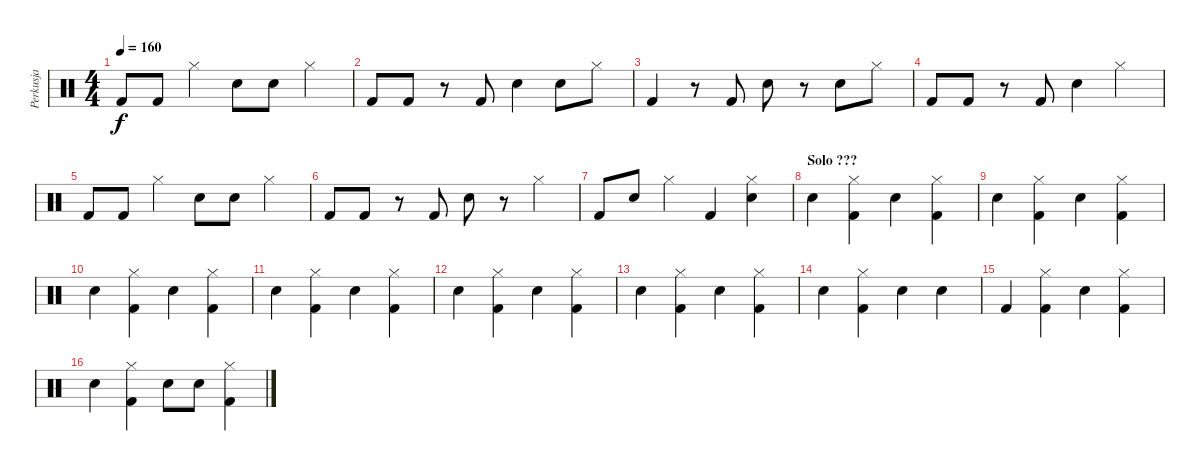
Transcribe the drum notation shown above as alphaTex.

\track ("Perkusja" "Perkusja") {instrument percussion}
\staff {score}
\articulation defaults
\ts (4 4)
\tempo 160
\clef neutral
\ks c "Kick (hit) 2".8{dy f} "Kick (hit) 2".8 "Hi-Hat (closed)".4 "Snare (hit) 2".8 "Snare (hit) 2".8 "Hi-Hat (closed)".4
|
"Kick (hit) 2".8 "Kick (hit) 2".8 r.8 "Kick (hit) 2".8 "Snare (hit) 2".4 "Snare (hit) 2".8 "Hi-Hat (closed)".8 |
"Kick (hit) 2".4 r.8 "Kick (hit) 2".8 "Snare (hit) 2".8 r.8 "Snare (hit) 2".8 "Hi-Hat (closed)".8 |
"Kick (hit) 2".8 "Kick (hit) 2".8 r.8 "Kick (hit) 2".8 "Snare (hit) 2".4 "Hi-Hat (closed)".4 |
"Kick (hit) 2".8 "Kick (hit) 2".8 "Hi-Hat (closed)".4 "Snare (hit) 2".8 "Snare (hit) 2".8 "Hi-Hat (closed)".4 |
"Kick (hit) 2".8 "Kick (hit) 2".8 r.8 "Kick (hit) 2".8 "Snare (hit) 2".8 r.8 "Hi-Hat (closed)".4 |
"Kick (hit) 2".8 "Snare (hit) 2".8 "Hi-Hat (closed)".4 "Kick (hit) 2".4 ("Snare (hit) 2" "Hi-Hat (closed)").4 |
\section ("" "Solo ???")
"Snare (hit) 2".4 ("Kick (hit) 2" "Hi-Hat (closed)").4 "Snare (hit) 2".4 ("Kick (hit) 2" "Hi-Hat (closed)").4 |
"Snare (hit) 2".4 ("Kick (hit) 2" "Hi-Hat (closed)").4 "Snare (hit) 2".4 ("Kick (hit) 2" "Hi-Hat (closed)").4 |
"Snare (hit) 2".4 ("Kick (hit) 2" "Hi-Hat (closed)").4 "Snare (hit) 2".4 ("Kick (hit) 2" "Hi-Hat (closed)").4 |
"Snare (hit) 2".4 ("Kick (hit) 2" "Hi-Hat (closed)").4 "Snare (hit) 2".4 ("Kick (hit) 2" "Hi-Hat (closed)").4 |
"Snare (hit) 2".4 ("Kick (hit) 2" "Hi-Hat (closed)").4 "Snare (hit) 2".4 ("Kick (hit) 2" "Hi-Hat (closed)").4 |
"Snare (hit) 2".4 ("Kick (hit) 2" "Hi-Hat (closed)").4 "Snare (hit) 2".4 ("Kick (hit) 2" "Hi-Hat (closed)").4 |
"Snare (hit) 2".4 ("Kick (hit) 2" "Hi-Hat (closed)").4 "Snare (hit) 2".4 "Snare (hit) 2".4 |
"Kick (hit) 2".4 ("Kick (hit) 2" "Hi-Hat (closed)").4 "Snare (hit) 2".4 ("Kick (hit) 2" "Hi-Hat (closed)").4 |
"Snare (hit) 2".4 ("Kick (hit) 2" "Hi-Hat (closed)").4 "Snare (hit) 2".8 "Snare (hit) 2".8 ("Kick (hit) 2" "Hi-Hat (closed)").4
